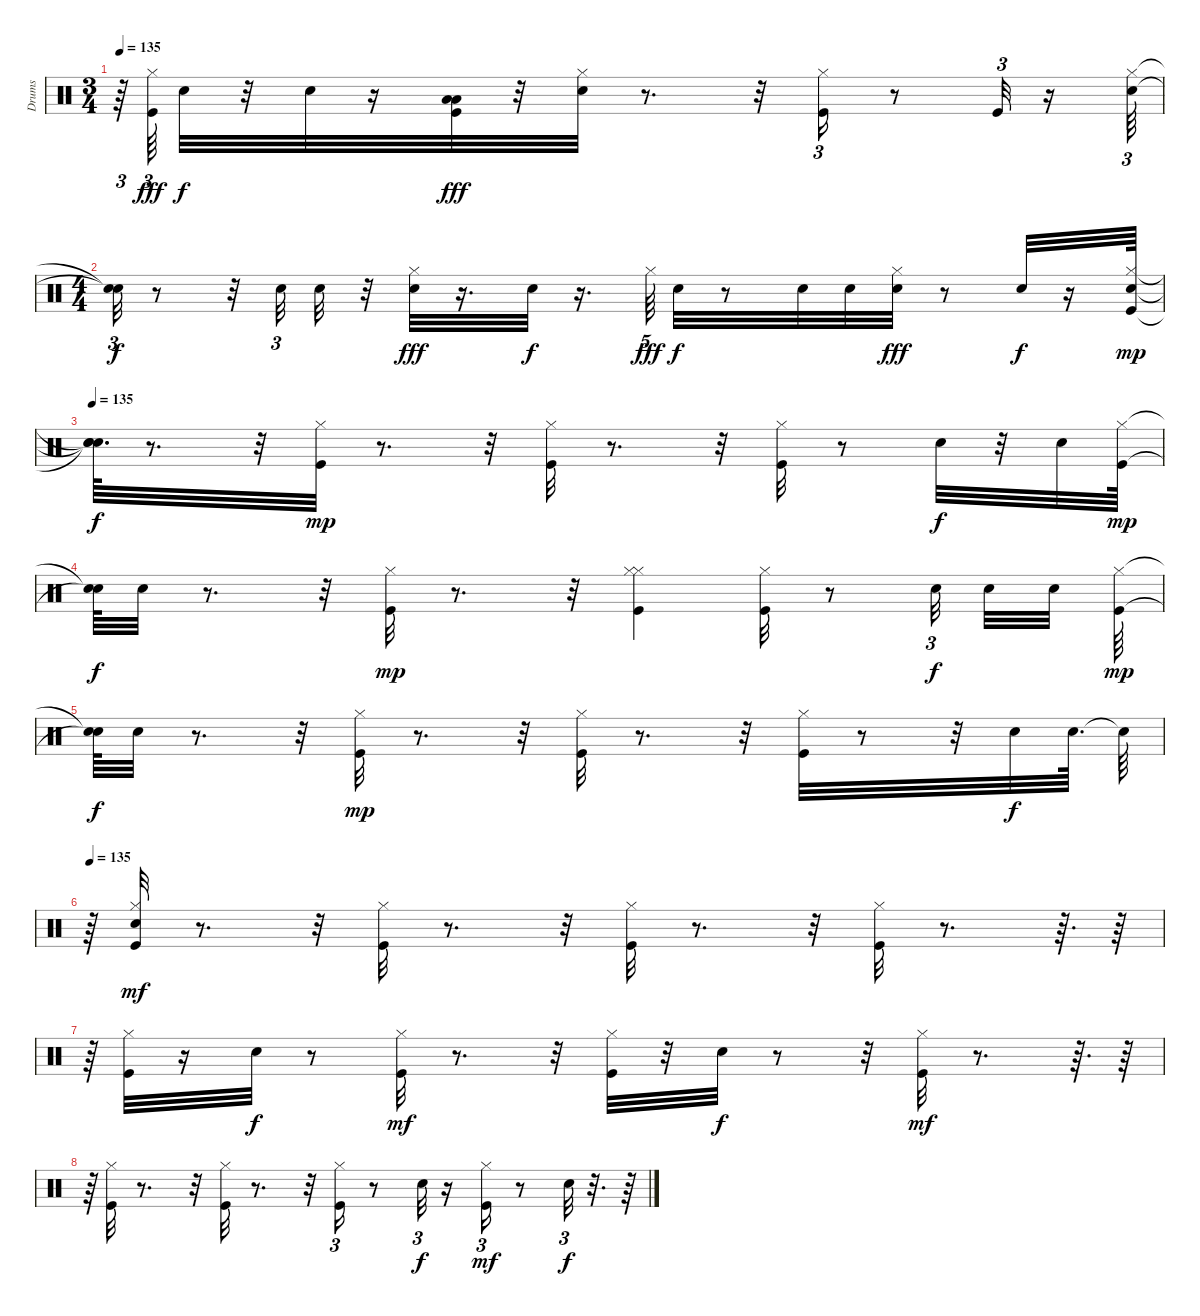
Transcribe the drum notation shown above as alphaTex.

\track ("Drums" "Drums") {instrument percussion}
\staff {score}
\articulation defaults
\ts (3 4)
\tempo 135
\clef neutral
\ks c
r.64{tu (3 2) dy f} ("Kick (hit)" "Hi-Hat (closed)").64{tu (3 2) dy fff} "Electric Snare (hit)".32{dy f} r.32 "Electric Snare (hit)".32 r.16 ("Kick (hit)" "Low Tom (hit)" "Low Floor Tom (hit)").32{dy fff} r.32 ("Electric Snare (hit)" "Hi-Hat (closed)").32 r.8{d} r.32 ("Kick (hit)" "Hi-Hat (closed)").16{tu (3 2)} r.8 "Kick (hit)".32{tu (3 2)} r.16 ("Electric Snare (hit)" "Hi-Hat (closed)").64{tu (3 2)} |
\ts (4 4)
("Snare (hit)"{t} "Snare (hit)"{t}).32{tu (3 2) dy f} r.8 r.32 "Electric Snare (hit)".32{tu (3 2)} "Electric Snare (hit)".32 r.32 ("Electric Snare (hit)" "Hi-Hat (closed)").32{dy fff} r.16{d} "Electric Snare (hit)".32{dy f} r.16{d} "Hi-Hat (closed)".64{tu (5 4) dy fff} "Electric Snare (hit)".32{dy f} r.8 "Electric Snare (hit)".32 "Electric Snare (hit)".32 ("Hi-Hat (closed)" "Electric Snare (hit)").32{dy fff} r.8 "Electric Snare (hit)".32{dy f} r.16 ("Electric Snare (hit)" "Kick (hit)" "Hi-Hat (closed)").64{dy mp} |
\tempo 135
("Snare (hit)"{t} "Snare (hit)"{t} "Snare (hit)"{t}).64{d dy f} r.8{d} r.32 ("Kick (hit)" "Hi-Hat (closed)").32{dy mp} r.8{d} r.32 ("Kick (hit)" "Hi-Hat (closed)").32 r.8{d} r.32 ("Kick (hit)" "Hi-Hat (closed)").32 r.8 "Electric Snare (hit)".32{dy f} r.32 "Electric Snare (hit)".32 ("Kick (hit)" "Hi-Hat (closed)").64{dy mp} |
("Snare (hit)"{t} "Snare (hit)"{t}).64{dy f} "Electric Snare (hit)".32 r.8{d} r.32 ("Kick (hit)" "Hi-Hat (closed)").32{dy mp} r.8{d} r.32 ("Kick (hit)" "Hi-Hat (closed)" "Hi-Hat (closed)").4 ("Kick (hit)" "Hi-Hat (closed)").32 r.8 "Electric Snare (hit)".32{tu (3 2) dy f beam splitsecondary} "Electric Snare (hit)".32 "Electric Snare (hit)".32 ("Kick (hit)" "Hi-Hat (closed)").64{dy mp} |
("Snare (hit)"{t} "Snare (hit)"{t}).64{dy f} "Electric Snare (hit)".32 r.8{d} r.32 ("Kick (hit)" "Hi-Hat (closed)").32{dy mp} r.8{d} r.32 ("Kick (hit)" "Hi-Hat (closed)").32 r.8{d} r.32 ("Kick (hit)" "Hi-Hat (closed)").32 r.8 r.32 "Electric Snare (hit)".32{dy f} "Electric Snare (hit)".64{d} "Snare (hit)"{t}.64 |
\tempo 135
r.64 ("Electric Snare (hit)" "Kick (hit)" "Hi-Hat (closed)").32{dy mf} r.8{d} r.32 ("Kick (hit)" "Hi-Hat (closed)").32 r.8{d} r.32 ("Kick (hit)" "Hi-Hat (closed)").32 r.8{d} r.32 ("Kick (hit)" "Hi-Hat (closed)").32 r.8{d} r.64{d} r.64 |
r.64 ("Kick (hit)" "Hi-Hat (closed)").32 r.16 "Electric Snare (hit)".32{dy f} r.8 ("Kick (hit)" "Hi-Hat (closed)").32{dy mf} r.8{d} r.32 ("Kick (hit)" "Hi-Hat (closed)").32 r.32 "Electric Snare (hit)".32{dy f} r.8 r.32 ("Kick (hit)" "Hi-Hat (closed)").32{dy mf} r.8{d} r.64{d} r.64 |
r.64 ("Kick (hit)" "Hi-Hat (closed)").32 r.8{d} r.32 ("Kick (hit)" "Hi-Hat (closed)").32 r.8{d} r.32 ("Kick (hit)" "Hi-Hat (closed)").16{tu (3 2)} r.8 "Electric Snare (hit)".32{tu (3 2) dy f} r.16 ("Kick (hit)" "Hi-Hat (closed)").16{tu (3 2) dy mf} r.8 "Electric Snare (hit)".32{tu (3 2) dy f} r.32{d} r.64
